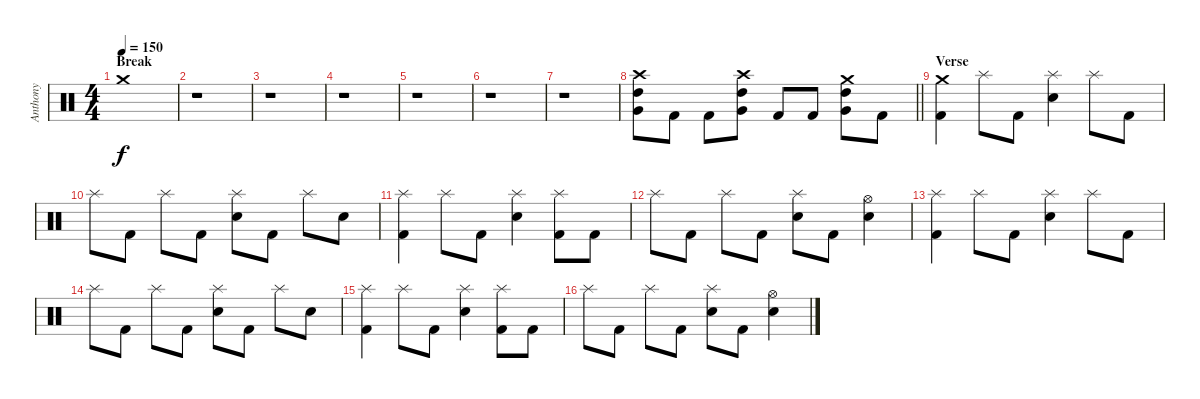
\track ("Anthony" "Anthony") {instrument percussion}
\staff {score}
\articulation defaults
\ts (4 4)
\section ("" "Break")
\tempo 150
\clef neutral
\ks c "Crash medium (hit)".1{dy f}
|
r.1 |
r.1 |
r.1 |
r.1 |
r.1 |
r.1 |
\barLineRight lightlight
("High Tom (hit)" "Very Low Tom (hit)" "Crash high (hit)").8 "Kick (hit) 2".8 "Kick (hit) 2".8 ("High Tom (hit)" "Very Low Tom (hit)" "Crash high (hit)").8 "Kick (hit) 2".8 "Kick (hit) 2".8 ("High Tom (hit)" "Very Low Tom (hit)" "Crash medium (hit)").8 "Kick (hit) 2".8 |
\section ("" "Verse")
("Crash medium (hit)" "Kick (hit) 2").4 "Splash (hit)".8 "Kick (hit) 2".8 ("Splash (hit)" "Electric Snare (hit)").4 "Splash (hit)".8 "Kick (hit) 2".8 |
"Splash (hit)".8 "Kick (hit) 2".8 "Splash (hit)".8 "Kick (hit) 2".8 ("Splash (hit)" "Electric Snare (hit)").8 "Kick (hit) 2".8 "Splash (hit)".8 "Electric Snare (hit)".8 |
("Splash (hit)" "Kick (hit) 2").4 "Splash (hit)".8 "Kick (hit) 2".8 ("Splash (hit)" "Electric Snare (hit)").4 ("Splash (hit)" "Kick (hit) 2").8 "Kick (hit) 2".8 |
"Splash (hit)".8 "Kick (hit) 2".8 "Splash (hit)".8 "Kick (hit) 2".8 ("Splash (hit)" "Electric Snare (hit)").8 "Kick (hit) 2".8 ("Hi-Hat (open)" "Electric Snare (hit)").4 |
("Splash (hit)" "Kick (hit) 2").4 "Splash (hit)".8 "Kick (hit) 2".8 ("Splash (hit)" "Electric Snare (hit)").4 "Splash (hit)".8 "Kick (hit) 2".8 |
"Splash (hit)".8 "Kick (hit) 2".8 "Splash (hit)".8 "Kick (hit) 2".8 ("Splash (hit)" "Electric Snare (hit)").8 "Kick (hit) 2".8 "Splash (hit)".8 "Electric Snare (hit)".8 |
("Splash (hit)" "Kick (hit) 2").4 "Splash (hit)".8 "Kick (hit) 2".8 ("Splash (hit)" "Electric Snare (hit)").4 ("Splash (hit)" "Kick (hit) 2").8 "Kick (hit) 2".8 |
"Splash (hit)".8 "Kick (hit) 2".8 "Splash (hit)".8 "Kick (hit) 2".8 ("Splash (hit)" "Electric Snare (hit)").8 "Kick (hit) 2".8 ("Hi-Hat (open)" "Electric Snare (hit)").4
